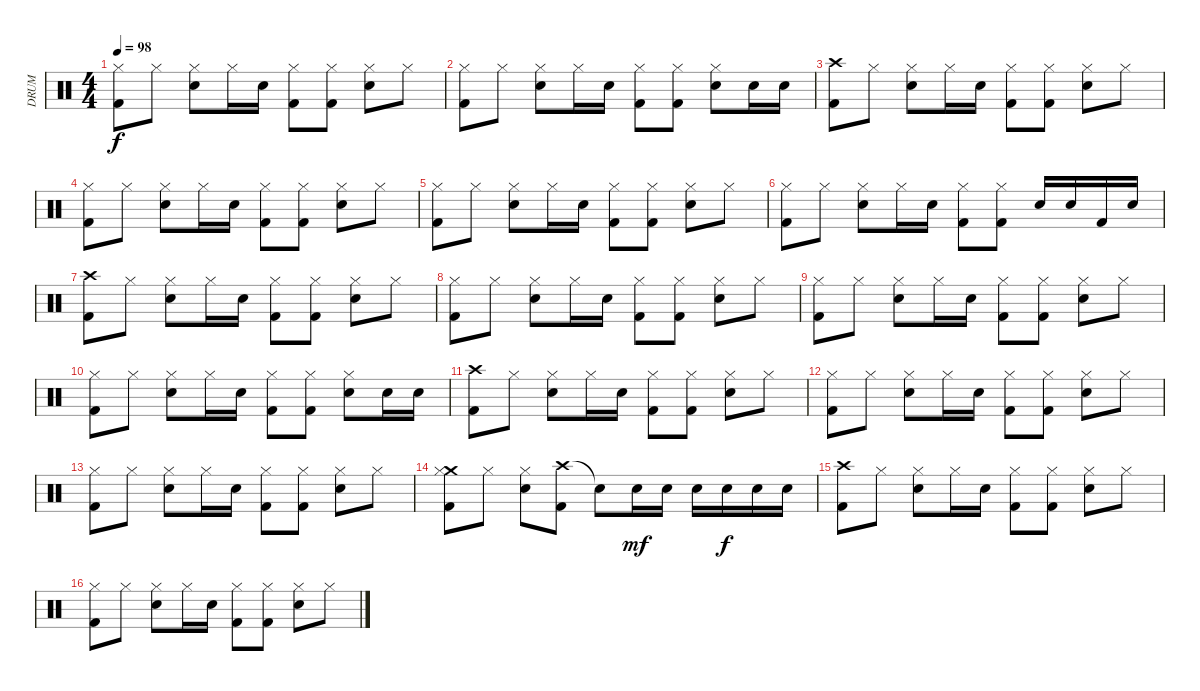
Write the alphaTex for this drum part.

\track ("DRUM" "DRUM") {instrument percussion}
\staff {score}
\articulation defaults
\ts (4 4)
\tempo 98
\clef neutral
\ks c
("Hi-Hat (closed)" "Kick (hit) 2").8{dy f} "Hi-Hat (closed)".8 ("Snare (hit) 2" "Hi-Hat (closed)").8 "Hi-Hat (closed)".16 "Snare (hit) 2".16 ("Hi-Hat (closed)" "Kick (hit) 2").8 ("Hi-Hat (closed)" "Kick (hit) 2").8 ("Snare (hit) 2" "Hi-Hat (closed)").8 "Hi-Hat (closed)".8 |
("Hi-Hat (closed)" "Kick (hit) 2").8 "Hi-Hat (closed)".8 ("Snare (hit) 2" "Hi-Hat (closed)").8 "Hi-Hat (closed)".16 "Snare (hit) 2".16 ("Hi-Hat (closed)" "Kick (hit) 2").8 ("Hi-Hat (closed)" "Kick (hit) 2").8 ("Snare (hit) 2" "Hi-Hat (closed)").8 "Snare (hit) 2".16 "Snare (hit) 2".16 |
("Crash high (hit)" "Kick (hit) 2").8 "Hi-Hat (closed)".8 ("Snare (hit) 2" "Hi-Hat (closed)").8 "Hi-Hat (closed)".16 "Snare (hit) 2".16 ("Hi-Hat (closed)" "Kick (hit) 2").8 ("Hi-Hat (closed)" "Kick (hit) 2").8 ("Snare (hit) 2" "Hi-Hat (closed)").8 "Hi-Hat (closed)".8 |
("Hi-Hat (closed)" "Kick (hit) 2").8 "Hi-Hat (closed)".8 ("Snare (hit) 2" "Hi-Hat (closed)").8 "Hi-Hat (closed)".16 "Snare (hit) 2".16 ("Hi-Hat (closed)" "Kick (hit) 2").8 ("Hi-Hat (closed)" "Kick (hit) 2").8 ("Snare (hit) 2" "Hi-Hat (closed)").8 "Hi-Hat (closed)".8 |
("Hi-Hat (closed)" "Kick (hit) 2").8 "Hi-Hat (closed)".8 ("Snare (hit) 2" "Hi-Hat (closed)").8 "Hi-Hat (closed)".16 "Snare (hit) 2".16 ("Hi-Hat (closed)" "Kick (hit) 2").8 ("Hi-Hat (closed)" "Kick (hit) 2").8 ("Snare (hit) 2" "Hi-Hat (closed)").8 "Hi-Hat (closed)".8 |
("Hi-Hat (closed)" "Kick (hit) 2").8 "Hi-Hat (closed)".8 ("Snare (hit) 2" "Hi-Hat (closed)").8 "Hi-Hat (closed)".16 "Snare (hit) 2".16 ("Hi-Hat (closed)" "Kick (hit) 2").8 ("Hi-Hat (closed)" "Kick (hit) 2").8 "Snare (hit) 2".16 "Snare (hit) 2".16 "Kick (hit) 2".16 "Snare (hit) 2".16 |
("Crash high (hit)" "Kick (hit) 2").8 "Hi-Hat (closed)".8 ("Snare (hit) 2" "Hi-Hat (closed)").8 "Hi-Hat (closed)".16 "Snare (hit) 2".16 ("Hi-Hat (closed)" "Kick (hit) 2").8 ("Hi-Hat (closed)" "Kick (hit) 2").8 ("Snare (hit) 2" "Hi-Hat (closed)").8 "Hi-Hat (closed)".8 |
("Hi-Hat (closed)" "Kick (hit) 2").8 "Hi-Hat (closed)".8 ("Snare (hit) 2" "Hi-Hat (closed)").8 "Hi-Hat (closed)".16 "Snare (hit) 2".16 ("Hi-Hat (closed)" "Kick (hit) 2").8 ("Hi-Hat (closed)" "Kick (hit) 2").8 ("Snare (hit) 2" "Hi-Hat (closed)").8 "Hi-Hat (closed)".8 |
("Hi-Hat (closed)" "Kick (hit) 2").8 "Hi-Hat (closed)".8 ("Snare (hit) 2" "Hi-Hat (closed)").8 "Hi-Hat (closed)".16 "Snare (hit) 2".16 ("Hi-Hat (closed)" "Kick (hit) 2").8 ("Hi-Hat (closed)" "Kick (hit) 2").8 ("Snare (hit) 2" "Hi-Hat (closed)").8 "Hi-Hat (closed)".8 |
("Hi-Hat (closed)" "Kick (hit) 2").8 "Hi-Hat (closed)".8 ("Snare (hit) 2" "Hi-Hat (closed)").8 "Hi-Hat (closed)".16 "Snare (hit) 2".16 ("Hi-Hat (closed)" "Kick (hit) 2").8 ("Hi-Hat (closed)" "Kick (hit) 2").8 ("Snare (hit) 2" "Hi-Hat (closed)").8 "Snare (hit) 2".16 "Snare (hit) 2".16 |
("Crash high (hit)" "Kick (hit) 2").8 "Hi-Hat (closed)".8 ("Snare (hit) 2" "Hi-Hat (closed)").8 "Hi-Hat (closed)".16 "Snare (hit) 2".16 ("Hi-Hat (closed)" "Kick (hit) 2").8 ("Hi-Hat (closed)" "Kick (hit) 2").8 ("Snare (hit) 2" "Hi-Hat (closed)").8 "Hi-Hat (closed)".8 |
("Hi-Hat (closed)" "Kick (hit) 2").8 "Hi-Hat (closed)".8 ("Snare (hit) 2" "Hi-Hat (closed)").8 "Hi-Hat (closed)".16 "Snare (hit) 2".16 ("Hi-Hat (closed)" "Kick (hit) 2").8 ("Hi-Hat (closed)" "Kick (hit) 2").8 ("Snare (hit) 2" "Hi-Hat (closed)").8 "Hi-Hat (closed)".8 |
("Hi-Hat (closed)" "Kick (hit) 2").8 "Hi-Hat (closed)".8 ("Snare (hit) 2" "Hi-Hat (closed)").8 "Hi-Hat (closed)".16 "Snare (hit) 2".16 ("Hi-Hat (closed)" "Kick (hit) 2").8 ("Hi-Hat (closed)" "Kick (hit) 2").8 ("Snare (hit) 2" "Hi-Hat (closed)").8 "Hi-Hat (closed)".8 |
("Crash medium (hit)" "Hi-Hat (closed)" "Kick (hit) 2").8 "Hi-Hat (closed)".8 ("Snare (hit) 2" "Hi-Hat (closed)").8 ("Crash high (hit)" "Kick (hit) 2").8 "Snare (hit)"{t}.8 "Snare (hit) 2".16{dy mf} "Snare (hit) 2".16 "Snare (hit) 2".16 "Snare (hit) 2".16{dy f} "Snare (hit) 2".16 "Snare (hit) 2".16 |
("Crash high (hit)" "Kick (hit) 2").8 "Hi-Hat (closed)".8 ("Snare (hit) 2" "Hi-Hat (closed)").8 "Hi-Hat (closed)".16 "Snare (hit) 2".16 ("Hi-Hat (closed)" "Kick (hit) 2").8 ("Hi-Hat (closed)" "Kick (hit) 2").8 ("Snare (hit) 2" "Hi-Hat (closed)").8 "Hi-Hat (closed)".8 |
("Hi-Hat (closed)" "Kick (hit) 2").8 "Hi-Hat (closed)".8 ("Snare (hit) 2" "Hi-Hat (closed)").8 "Hi-Hat (closed)".16 "Snare (hit) 2".16 ("Hi-Hat (closed)" "Kick (hit) 2").8 ("Hi-Hat (closed)" "Kick (hit) 2").8 ("Snare (hit) 2" "Hi-Hat (closed)").8 "Hi-Hat (closed)".8
